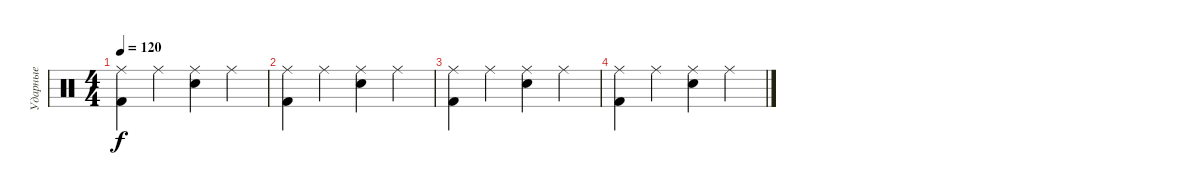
\track ("Ударные" "Ударные") {instrument percussion}
\staff {score}
\articulation defaults
\ts (4 4)
\tempo 120
\clef neutral
\ks c
("Kick (hit) 2" "Ride (middle)").4{dy f} "Ride (middle)".4 ("Snare (hit) 2" "Ride (middle)").4 "Ride (middle)".4 |
("Kick (hit) 2" "Ride (middle)").4 "Ride (middle)".4 ("Snare (hit) 2" "Ride (middle)").4 "Ride (middle)".4 |
("Kick (hit) 2" "Ride (middle)").4 "Ride (middle)".4 ("Snare (hit) 2" "Ride (middle)").4 "Ride (middle)".4 |
("Kick (hit) 2" "Ride (middle)").4 "Ride (middle)".4 ("Snare (hit) 2" "Ride (middle)").4 "Ride (middle)".4
